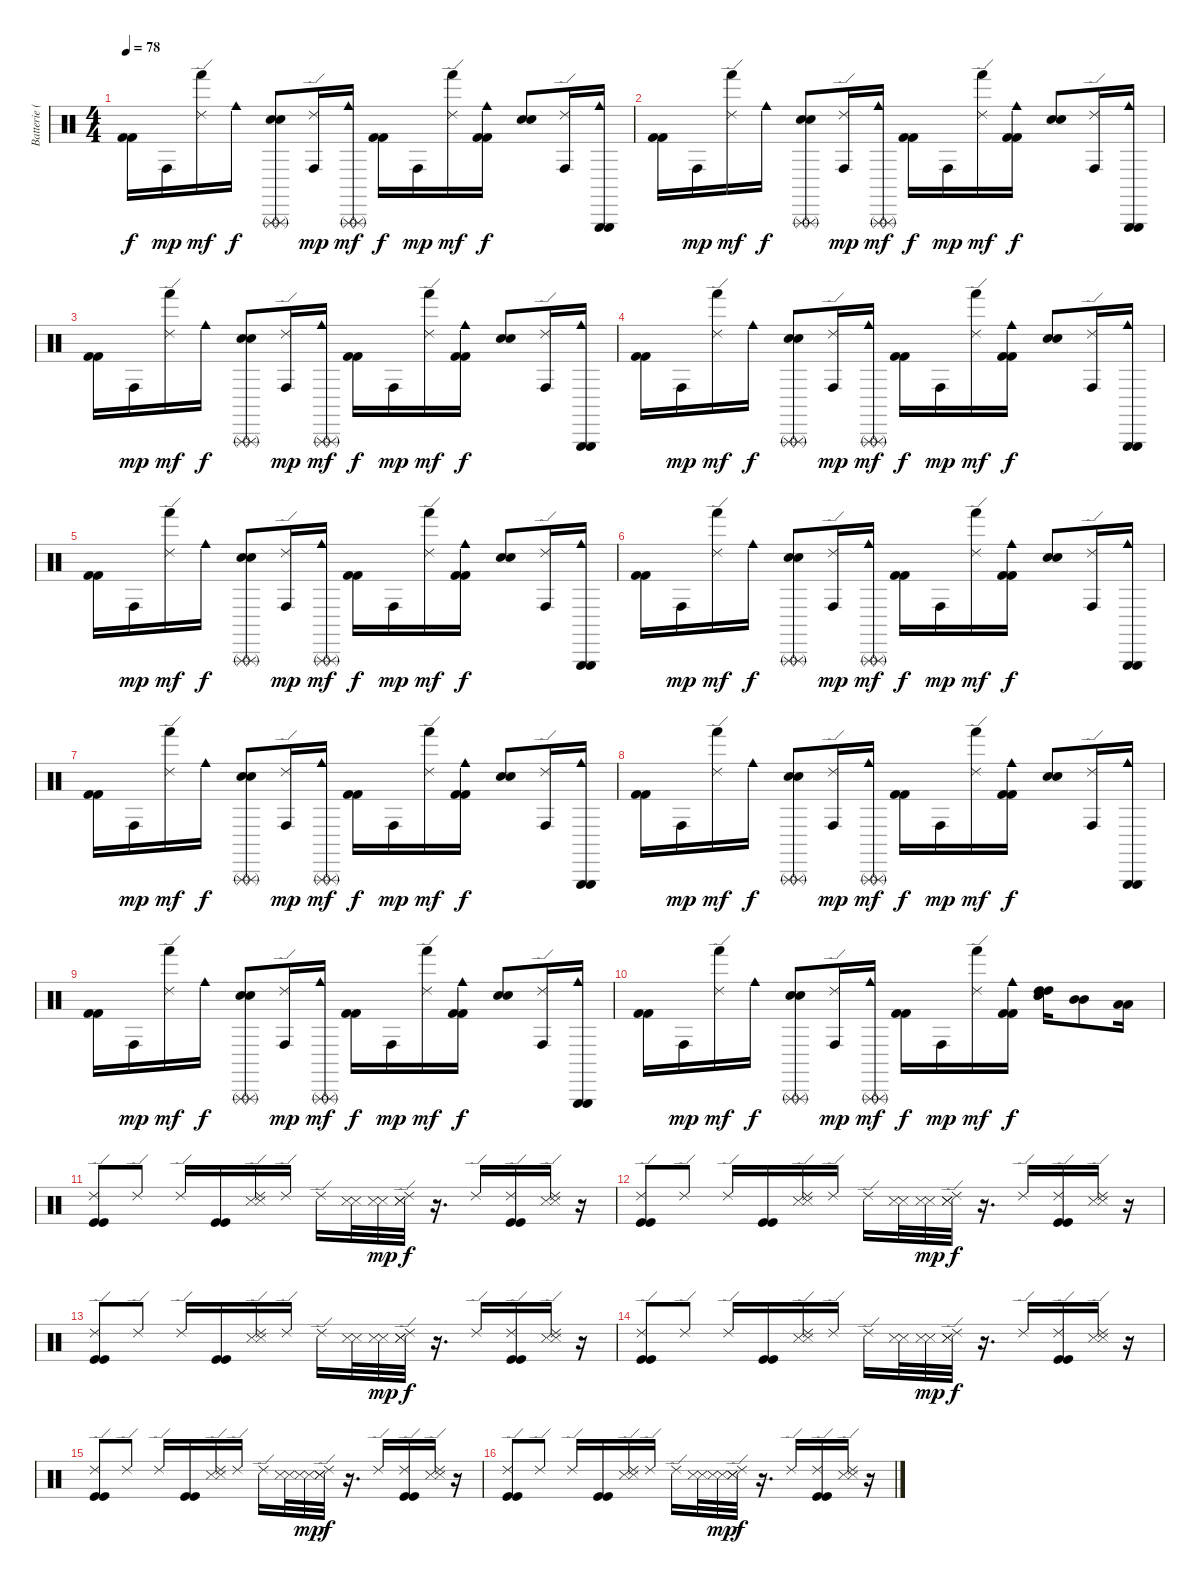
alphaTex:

\track ("Batterie ( Raphaël )" "Batterie (") {instrument percussion}
\staff {score}
\articulation defaults
\ts (4 4)
\tempo 78
\clef neutral
\ks c
("Kick (hit) 2" "Kick (hit) 2").16{dy f} "Conga high (hit)".16{dy mp} ("Ride (edge) 2" "Hand (hit)").16{dy mf} "Cowbell medium (hit)".16{dy f} ("Triangle (rnute)" "Triangle (rnute)" "Electric Snare (hit)" "Electric Snare (hit)").8 ("Ride (edge) 2" "Conga high (hit)").16{dy mp} ("Triangle (rnute)" "Triangle (rnute)" "Cowbell medium (hit)").16{dy mf} ("Kick (hit) 2" "Kick (hit) 2").16{dy f} "Conga high (hit)".16{dy mp} ("Ride (edge) 2" "Hand (hit)").16{dy mf} ("Cowbell medium (hit)" "Kick (hit) 2" "Kick (hit) 2").16{dy f} ("Electric Snare (hit)" "Electric Snare (hit)").8 ("Ride (edge) 2" "Conga high (hit)").16 ("Triangle (hit)" "Triangle (hit)" "Cowbell medium (hit)").16 |
("Kick (hit) 2" "Kick (hit) 2").16 "Conga high (hit)".16{dy mp} ("Ride (edge) 2" "Hand (hit)").16{dy mf} "Cowbell medium (hit)".16{dy f} ("Triangle (rnute)" "Triangle (rnute)" "Electric Snare (hit)" "Electric Snare (hit)").8 ("Ride (edge) 2" "Conga high (hit)").16{dy mp} ("Triangle (rnute)" "Triangle (rnute)" "Cowbell medium (hit)").16{dy mf} ("Kick (hit) 2" "Kick (hit) 2").16{dy f} "Conga high (hit)".16{dy mp} ("Ride (edge) 2" "Hand (hit)").16{dy mf} ("Cowbell medium (hit)" "Kick (hit) 2" "Kick (hit) 2").16{dy f} ("Electric Snare (hit)" "Electric Snare (hit)").8 ("Ride (edge) 2" "Conga high (hit)").16 ("Triangle (hit)" "Triangle (hit)" "Cowbell medium (hit)").16 |
("Kick (hit) 2" "Kick (hit) 2").16 "Conga high (hit)".16{dy mp} ("Ride (edge) 2" "Hand (hit)").16{dy mf} "Cowbell medium (hit)".16{dy f} ("Triangle (rnute)" "Triangle (rnute)" "Electric Snare (hit)" "Electric Snare (hit)").8 ("Ride (edge) 2" "Conga high (hit)").16{dy mp} ("Triangle (rnute)" "Triangle (rnute)" "Cowbell medium (hit)").16{dy mf} ("Kick (hit) 2" "Kick (hit) 2").16{dy f} "Conga high (hit)".16{dy mp} ("Ride (edge) 2" "Hand (hit)").16{dy mf} ("Cowbell medium (hit)" "Kick (hit) 2" "Kick (hit) 2").16{dy f} ("Electric Snare (hit)" "Electric Snare (hit)").8 ("Ride (edge) 2" "Conga high (hit)").16 ("Triangle (hit)" "Triangle (hit)" "Cowbell medium (hit)").16 |
("Kick (hit) 2" "Kick (hit) 2").16 "Conga high (hit)".16{dy mp} ("Ride (edge) 2" "Hand (hit)").16{dy mf} "Cowbell medium (hit)".16{dy f} ("Triangle (rnute)" "Triangle (rnute)" "Electric Snare (hit)" "Electric Snare (hit)").8 ("Ride (edge) 2" "Conga high (hit)").16{dy mp} ("Triangle (rnute)" "Triangle (rnute)" "Cowbell medium (hit)").16{dy mf} ("Kick (hit) 2" "Kick (hit) 2").16{dy f} "Conga high (hit)".16{dy mp} ("Ride (edge) 2" "Hand (hit)").16{dy mf} ("Cowbell medium (hit)" "Kick (hit) 2" "Kick (hit) 2").16{dy f} ("Electric Snare (hit)" "Electric Snare (hit)").8 ("Ride (edge) 2" "Conga high (hit)").16 ("Triangle (hit)" "Triangle (hit)" "Cowbell medium (hit)").16 |
("Kick (hit) 2" "Kick (hit) 2").16 "Conga high (hit)".16{dy mp} ("Ride (edge) 2" "Hand (hit)").16{dy mf} "Cowbell medium (hit)".16{dy f} ("Triangle (rnute)" "Triangle (rnute)" "Electric Snare (hit)" "Electric Snare (hit)").8 ("Ride (edge) 2" "Conga high (hit)").16{dy mp} ("Triangle (rnute)" "Triangle (rnute)" "Cowbell medium (hit)").16{dy mf} ("Kick (hit) 2" "Kick (hit) 2").16{dy f} "Conga high (hit)".16{dy mp} ("Ride (edge) 2" "Hand (hit)").16{dy mf} ("Cowbell medium (hit)" "Kick (hit) 2" "Kick (hit) 2").16{dy f} ("Electric Snare (hit)" "Electric Snare (hit)").8 ("Ride (edge) 2" "Conga high (hit)").16 ("Triangle (hit)" "Triangle (hit)" "Cowbell medium (hit)").16 |
("Kick (hit) 2" "Kick (hit) 2").16 "Conga high (hit)".16{dy mp} ("Ride (edge) 2" "Hand (hit)").16{dy mf} "Cowbell medium (hit)".16{dy f} ("Triangle (rnute)" "Triangle (rnute)" "Electric Snare (hit)" "Electric Snare (hit)").8 ("Ride (edge) 2" "Conga high (hit)").16{dy mp} ("Triangle (rnute)" "Triangle (rnute)" "Cowbell medium (hit)").16{dy mf} ("Kick (hit) 2" "Kick (hit) 2").16{dy f} "Conga high (hit)".16{dy mp} ("Ride (edge) 2" "Hand (hit)").16{dy mf} ("Cowbell medium (hit)" "Kick (hit) 2" "Kick (hit) 2").16{dy f} ("Electric Snare (hit)" "Electric Snare (hit)").8 ("Ride (edge) 2" "Conga high (hit)").16 ("Triangle (hit)" "Triangle (hit)" "Cowbell medium (hit)").16 |
("Kick (hit) 2" "Kick (hit) 2").16 "Conga high (hit)".16{dy mp} ("Ride (edge) 2" "Hand (hit)").16{dy mf} "Cowbell medium (hit)".16{dy f} ("Triangle (rnute)" "Triangle (rnute)" "Electric Snare (hit)" "Electric Snare (hit)").8 ("Ride (edge) 2" "Conga high (hit)").16{dy mp} ("Triangle (rnute)" "Triangle (rnute)" "Cowbell medium (hit)").16{dy mf} ("Kick (hit) 2" "Kick (hit) 2").16{dy f} "Conga high (hit)".16{dy mp} ("Ride (edge) 2" "Hand (hit)").16{dy mf} ("Cowbell medium (hit)" "Kick (hit) 2" "Kick (hit) 2").16{dy f} ("Electric Snare (hit)" "Electric Snare (hit)").8 ("Ride (edge) 2" "Conga high (hit)").16 ("Triangle (hit)" "Triangle (hit)" "Cowbell medium (hit)").16 |
("Kick (hit) 2" "Kick (hit) 2").16 "Conga high (hit)".16{dy mp} ("Ride (edge) 2" "Hand (hit)").16{dy mf} "Cowbell medium (hit)".16{dy f} ("Triangle (rnute)" "Triangle (rnute)" "Electric Snare (hit)" "Electric Snare (hit)").8 ("Ride (edge) 2" "Conga high (hit)").16{dy mp} ("Triangle (rnute)" "Triangle (rnute)" "Cowbell medium (hit)").16{dy mf} ("Kick (hit) 2" "Kick (hit) 2").16{dy f} "Conga high (hit)".16{dy mp} ("Ride (edge) 2" "Hand (hit)").16{dy mf} ("Cowbell medium (hit)" "Kick (hit) 2" "Kick (hit) 2").16{dy f} ("Electric Snare (hit)" "Electric Snare (hit)").8 ("Ride (edge) 2" "Conga high (hit)").16 ("Triangle (hit)" "Triangle (hit)" "Cowbell medium (hit)").16 |
("Kick (hit) 2" "Kick (hit) 2").16 "Conga high (hit)".16{dy mp} ("Ride (edge) 2" "Hand (hit)").16{dy mf} "Cowbell medium (hit)".16{dy f} ("Triangle (rnute)" "Triangle (rnute)" "Electric Snare (hit)" "Electric Snare (hit)").8 ("Ride (edge) 2" "Conga high (hit)").16{dy mp} ("Triangle (rnute)" "Triangle (rnute)" "Cowbell medium (hit)").16{dy mf} ("Kick (hit) 2" "Kick (hit) 2").16{dy f} "Conga high (hit)".16{dy mp} ("Ride (edge) 2" "Hand (hit)").16{dy mf} ("Cowbell medium (hit)" "Kick (hit) 2" "Kick (hit) 2").16{dy f} ("Electric Snare (hit)" "Electric Snare (hit)").8 ("Ride (edge) 2" "Conga high (hit)").16 ("Triangle (hit)" "Triangle (hit)" "Cowbell medium (hit)").16 |
("Kick (hit) 2" "Kick (hit) 2").16 "Conga high (hit)".16{dy mp} ("Ride (edge) 2" "Hand (hit)").16{dy mf} "Cowbell medium (hit)".16{dy f} ("Triangle (rnute)" "Triangle (rnute)" "Electric Snare (hit)" "Electric Snare (hit)").8 ("Ride (edge) 2" "Conga high (hit)").16{dy mp} ("Triangle (rnute)" "Triangle (rnute)" "Cowbell medium (hit)").16{dy mf} ("Kick (hit) 2" "Kick (hit) 2").16{dy f} "Conga high (hit)".16{dy mp} ("Ride (edge) 2" "Hand (hit)").16{dy mf} ("Cowbell medium (hit)" "Kick (hit) 2" "Kick (hit) 2").16{dy f} ("High Tom (hit)" "High Tom (hit)" "Electric Snare (hit)" "Electric Snare (hit)").16 ("Mid Tom (hit)" "Mid Tom (hit)").8 ("Low Tom (hit)" "Low Tom (hit)").16 |
("Ride (edge) 2" "Kick (hit)" "Kick (hit)").8 "Ride (edge) 2".8 "Ride (edge) 2".16 ("Kick (hit)" "Kick (hit)").16 ("Ride (edge) 2" "Snare (side stick) 3" "Snare (side stick) 3").16 "Ride (edge) 2".16 "Ride (edge) 2".16 ("Snare (side stick) 3" "Snare (side stick) 3").32 ("Snare (side stick) 3" "Snare (side stick) 3").32{dy mp} ("Ride (edge) 2" "Snare (side stick) 3" "Snare (side stick) 3").32{dy f} r.16{d} "Ride (edge) 2".16 ("Ride (edge) 2" "Kick (hit)" "Kick (hit)").16 ("Ride (edge) 2" "Snare (side stick) 3" "Snare (side stick) 3").16 r.16 |
("Ride (edge) 2" "Kick (hit)" "Kick (hit)").8 "Ride (edge) 2".8 "Ride (edge) 2".16 ("Kick (hit)" "Kick (hit)").16 ("Ride (edge) 2" "Snare (side stick) 3" "Snare (side stick) 3").16 "Ride (edge) 2".16 "Ride (edge) 2".16 ("Snare (side stick) 3" "Snare (side stick) 3").32 ("Snare (side stick) 3" "Snare (side stick) 3").32{dy mp} ("Ride (edge) 2" "Snare (side stick) 3" "Snare (side stick) 3").32{dy f} r.16{d} "Ride (edge) 2".16 ("Ride (edge) 2" "Kick (hit)" "Kick (hit)").16 ("Ride (edge) 2" "Snare (side stick) 3" "Snare (side stick) 3").16 r.16 |
("Ride (edge) 2" "Kick (hit)" "Kick (hit)").8 "Ride (edge) 2".8 "Ride (edge) 2".16 ("Kick (hit)" "Kick (hit)").16 ("Ride (edge) 2" "Snare (side stick) 3" "Snare (side stick) 3").16 "Ride (edge) 2".16 "Ride (edge) 2".16 ("Snare (side stick) 3" "Snare (side stick) 3").32 ("Snare (side stick) 3" "Snare (side stick) 3").32{dy mp} ("Ride (edge) 2" "Snare (side stick) 3" "Snare (side stick) 3").32{dy f} r.16{d} "Ride (edge) 2".16 ("Ride (edge) 2" "Kick (hit)" "Kick (hit)").16 ("Ride (edge) 2" "Snare (side stick) 3" "Snare (side stick) 3").16 r.16 |
("Ride (edge) 2" "Kick (hit)" "Kick (hit)").8 "Ride (edge) 2".8 "Ride (edge) 2".16 ("Kick (hit)" "Kick (hit)").16 ("Ride (edge) 2" "Snare (side stick) 3" "Snare (side stick) 3").16 "Ride (edge) 2".16 "Ride (edge) 2".16 ("Snare (side stick) 3" "Snare (side stick) 3").32 ("Snare (side stick) 3" "Snare (side stick) 3").32{dy mp} ("Ride (edge) 2" "Snare (side stick) 3" "Snare (side stick) 3").32{dy f} r.16{d} "Ride (edge) 2".16 ("Ride (edge) 2" "Kick (hit)" "Kick (hit)").16 ("Ride (edge) 2" "Snare (side stick) 3" "Snare (side stick) 3").16 r.16 |
("Ride (edge) 2" "Kick (hit)" "Kick (hit)").8 "Ride (edge) 2".8 "Ride (edge) 2".16 ("Kick (hit)" "Kick (hit)").16 ("Ride (edge) 2" "Snare (side stick) 3" "Snare (side stick) 3").16 "Ride (edge) 2".16 "Ride (edge) 2".16 ("Snare (side stick) 3" "Snare (side stick) 3").32 ("Snare (side stick) 3" "Snare (side stick) 3").32{dy mp} ("Ride (edge) 2" "Snare (side stick) 3" "Snare (side stick) 3").32{dy f} r.16{d} "Ride (edge) 2".16 ("Ride (edge) 2" "Kick (hit)" "Kick (hit)").16 ("Ride (edge) 2" "Snare (side stick) 3" "Snare (side stick) 3").16 r.16 |
("Ride (edge) 2" "Kick (hit)" "Kick (hit)").8 "Ride (edge) 2".8 "Ride (edge) 2".16 ("Kick (hit)" "Kick (hit)").16 ("Ride (edge) 2" "Snare (side stick) 3" "Snare (side stick) 3").16 "Ride (edge) 2".16 "Ride (edge) 2".16 ("Snare (side stick) 3" "Snare (side stick) 3").32 ("Snare (side stick) 3" "Snare (side stick) 3").32{dy mp} ("Ride (edge) 2" "Snare (side stick) 3" "Snare (side stick) 3").32{dy f} r.16{d} "Ride (edge) 2".16 ("Ride (edge) 2" "Kick (hit)" "Kick (hit)").16 ("Ride (edge) 2" "Snare (side stick) 3" "Snare (side stick) 3").16 r.16
